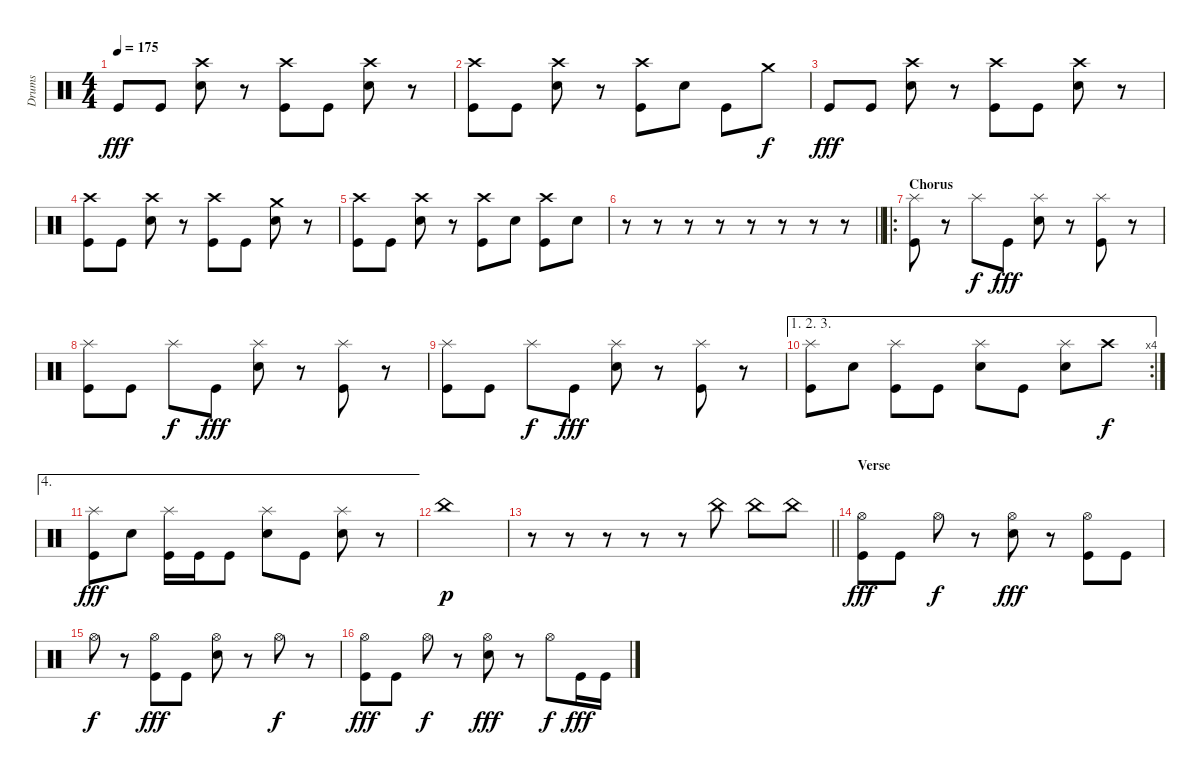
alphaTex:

\track ("Drums" "Drums") {instrument percussion}
\staff {score}
\articulation defaults
\ts (4 4)
\tempo 175
\clef neutral
\ks c "Kick (hit)".8{dy fff} "Kick (hit)".8
("Crash high (hit)" "Electric Snare (hit)").8 r.8 ("Crash high (hit)" "Kick (hit)").8 "Kick (hit)".8 ("Crash high (hit)" "Electric Snare (hit)").8 r.8 |
("Crash high (hit)" "Kick (hit)").8 "Kick (hit)".8 ("Crash high (hit)" "Electric Snare (hit)").8 r.8 ("Crash high (hit)" "Kick (hit)").8 "Electric Snare (hit)".8 "Kick (hit)".8 "Crash medium (hit)".8{dy f} |
"Kick (hit)".8{dy fff} "Kick (hit)".8 ("Crash high (hit)" "Electric Snare (hit)").8 r.8 ("Crash high (hit)" "Kick (hit)").8 "Kick (hit)".8 ("Crash high (hit)" "Electric Snare (hit)").8 r.8 |
("Crash high (hit)" "Kick (hit)").8 "Kick (hit)".8 ("Crash high (hit)" "Electric Snare (hit)").8 r.8 ("Crash high (hit)" "Kick (hit)").8 "Kick (hit)".8 ("Crash medium (hit)" "Electric Snare (hit)").8 r.8 |
("Crash high (hit)" "Kick (hit)").8 "Kick (hit)".8 ("Crash high (hit)" "Electric Snare (hit)").8 r.8 ("Crash high (hit)" "Kick (hit)").8 "Electric Snare (hit)".8 ("Crash high (hit)" "Kick (hit)").8 "Electric Snare (hit)".8 |
\barLineRight lightlight
r.8 r.8 r.8 r.8 r.8 r.8 r.8 r.8 |
\ro
\section ("" "Chorus")
("Splash (hit)" "Kick (hit)").8 r.8 "Splash (hit)".8{dy f} "Kick (hit)".8{dy fff} ("Splash (hit)" "Electric Snare (hit)").8 r.8 ("Splash (hit)" "Kick (hit)").8 r.8 |
("Splash (hit)" "Kick (hit)").8 "Kick (hit)".8 "Splash (hit)".8{dy f} "Kick (hit)".8{dy fff} ("Splash (hit)" "Electric Snare (hit)").8 r.8 ("Splash (hit)" "Kick (hit)").8 r.8 |
("Splash (hit)" "Kick (hit)").8 "Kick (hit)".8 "Splash (hit)".8{dy f} "Kick (hit)".8{dy fff} ("Splash (hit)" "Electric Snare (hit)").8 r.8 ("Splash (hit)" "Kick (hit)").8 r.8 |
\ae (1 2 3)
\rc 4
("Splash (hit)" "Kick (hit)").8 "Electric Snare (hit)".8 ("Splash (hit)" "Kick (hit)").8 "Kick (hit)".8 ("Splash (hit)" "Electric Snare (hit)").8 "Kick (hit)".8 ("Splash (hit)" "Electric Snare (hit)").8 "Crash high (hit)".8{dy f} |
\ae 4
("Splash (hit)" "Kick (hit)").8{dy fff} "Electric Snare (hit)".8 ("Splash (hit)" "Kick (hit)").16 "Kick (hit)".16 "Kick (hit)".8 ("Splash (hit)" "Electric Snare (hit)").8 "Kick (hit)".8 ("Splash (hit)" "Electric Snare (hit)").8 r.8 |
"China (hit)".1{dy p} |
\barLineRight lightlight
r.8 r.8 r.8 r.8 r.8 "China (hit)".8 "China (hit)".8 "China (hit)".8 |
\section ("" "Verse")
("Hi-Hat (open)" "Kick (hit)").8{dy fff} "Kick (hit)".8 "Hi-Hat (open)".8{dy f} r.8 ("Hi-Hat (open)" "Electric Snare (hit)").8{dy fff} r.8 ("Hi-Hat (open)" "Kick (hit)").8 "Kick (hit)".8 |
"Hi-Hat (open)".8{dy f} r.8 ("Hi-Hat (open)" "Kick (hit)").8{dy fff} "Kick (hit)".8 ("Hi-Hat (open)" "Electric Snare (hit)").8 r.8 "Hi-Hat (open)".8{dy f} r.8 |
("Hi-Hat (open)" "Kick (hit)").8{dy fff} "Kick (hit)".8 "Hi-Hat (open)".8{dy f} r.8 ("Hi-Hat (open)" "Electric Snare (hit)").8{dy fff} r.8 "Hi-Hat (open)".8{dy f} "Kick (hit)".16{dy fff} "Kick (hit)".16
